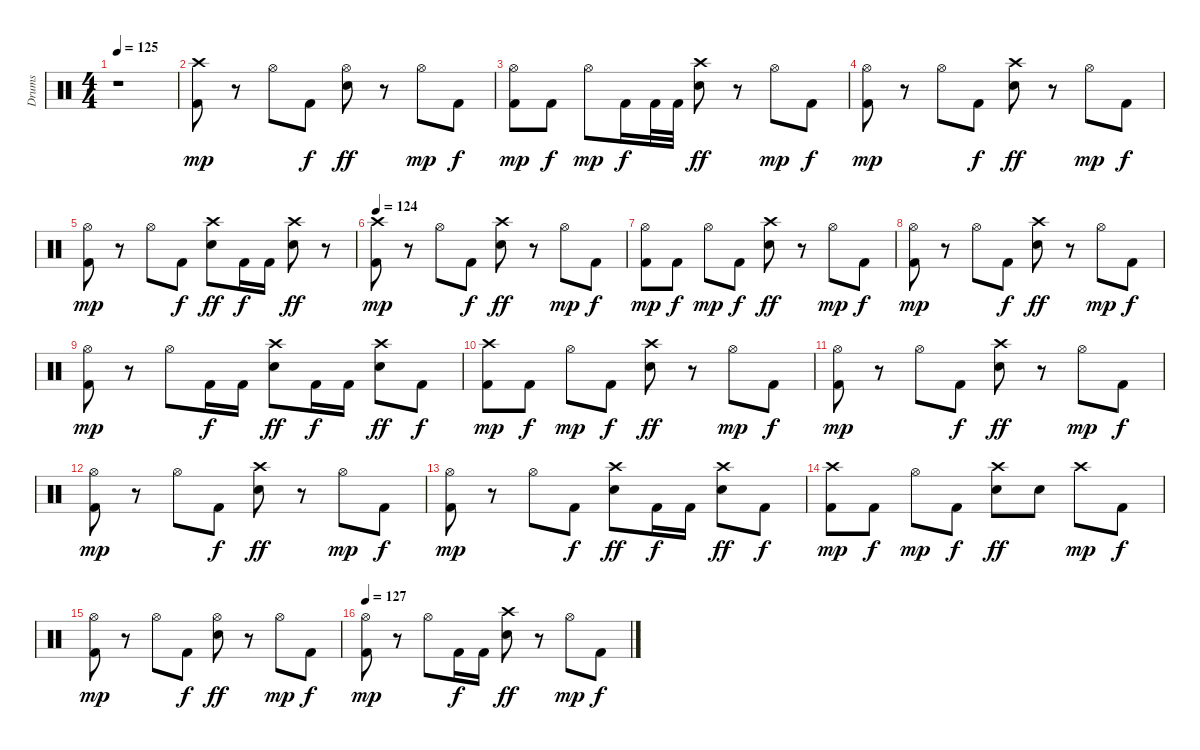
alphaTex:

\track ("Drums" "Drums") {instrument percussion}
\staff {score}
\articulation defaults
\ts (4 4)
\tempo 125
\clef neutral
\ks c
r.1{dy mp} |
("Crash high (hit)" "Kick (hit) 2").8 r.8 "Hi-Hat (open)".8 "Kick (hit) 2".8{dy f} ("Hi-Hat (open)" "Electric Snare (hit)").8{dy ff} r.8 "Hi-Hat (open)".8{dy mp} "Kick (hit) 2".8{dy f} |
("Hi-Hat (open)" "Kick (hit) 2").8{dy mp} "Kick (hit) 2".8{dy f} "Hi-Hat (open)".8{dy mp} "Kick (hit) 2".16{dy f} "Kick (hit) 2".32 "Kick (hit) 2".32 ("Crash high (hit)" "Electric Snare (hit)").8{dy ff} r.8 "Hi-Hat (open)".8{dy mp} "Kick (hit) 2".8{dy f} |
("Hi-Hat (open)" "Kick (hit) 2").8{dy mp} r.8 "Hi-Hat (open)".8 "Kick (hit) 2".8{dy f} ("Crash high (hit)" "Electric Snare (hit)").8{dy ff} r.8 "Hi-Hat (open)".8{dy mp} "Kick (hit) 2".8{dy f} |
("Hi-Hat (open)" "Kick (hit) 2").8{dy mp} r.8 "Hi-Hat (open)".8 "Kick (hit) 2".8{dy f} ("Crash high (hit)" "Electric Snare (hit)").8{dy ff} "Kick (hit) 2".16{dy f} "Kick (hit) 2".16 ("Crash high (hit)" "Electric Snare (hit)").8{dy ff} r.8 |
\tempo 124
("Crash high (hit)" "Kick (hit) 2").8{dy mp} r.8 "Hi-Hat (open)".8 "Kick (hit) 2".8{dy f} ("Crash high (hit)" "Electric Snare (hit)").8{dy ff} r.8 "Hi-Hat (open)".8{dy mp} "Kick (hit) 2".8{dy f} |
("Hi-Hat (open)" "Kick (hit) 2").8{dy mp} "Kick (hit) 2".8{dy f} "Hi-Hat (open)".8{dy mp} "Kick (hit) 2".8{dy f} ("Crash high (hit)" "Electric Snare (hit)").8{dy ff} r.8 "Hi-Hat (open)".8{dy mp} "Kick (hit) 2".8{dy f} |
("Hi-Hat (open)" "Kick (hit) 2").8{dy mp} r.8 "Hi-Hat (open)".8 "Kick (hit) 2".8{dy f} ("Crash high (hit)" "Electric Snare (hit)").8{dy ff} r.8 "Hi-Hat (open)".8{dy mp} "Kick (hit) 2".8{dy f} |
("Hi-Hat (open)" "Kick (hit) 2").8{dy mp} r.8 "Hi-Hat (open)".8 "Kick (hit) 2".16{dy f} "Kick (hit) 2".16 ("Crash high (hit)" "Electric Snare (hit)").8{dy ff} "Kick (hit) 2".16{dy f} "Kick (hit) 2".16 ("Crash high (hit)" "Electric Snare (hit)").8{dy ff} "Kick (hit) 2".8{dy f} |
("Crash high (hit)" "Kick (hit) 2").8{dy mp} "Kick (hit) 2".8{dy f} "Hi-Hat (open)".8{dy mp} "Kick (hit) 2".8{dy f} ("Crash high (hit)" "Electric Snare (hit)").8{dy ff} r.8 "Hi-Hat (open)".8{dy mp} "Kick (hit) 2".8{dy f} |
("Hi-Hat (open)" "Kick (hit) 2").8{dy mp} r.8 "Hi-Hat (open)".8 "Kick (hit) 2".8{dy f} ("Crash high (hit)" "Electric Snare (hit)").8{dy ff} r.8 "Hi-Hat (open)".8{dy mp} "Kick (hit) 2".8{dy f} |
("Hi-Hat (open)" "Kick (hit) 2").8{dy mp} r.8 "Hi-Hat (open)".8 "Kick (hit) 2".8{dy f} ("Crash high (hit)" "Electric Snare (hit)").8{dy ff} r.8 "Hi-Hat (open)".8{dy mp} "Kick (hit) 2".8{dy f} |
("Hi-Hat (open)" "Kick (hit) 2").8{dy mp} r.8 "Hi-Hat (open)".8 "Kick (hit) 2".8{dy f} ("Crash high (hit)" "Electric Snare (hit)").8{dy ff} "Kick (hit) 2".16{dy f} "Kick (hit) 2".16 ("Crash high (hit)" "Electric Snare (hit)").8{dy ff} "Kick (hit) 2".8{dy f} |
("Crash high (hit)" "Kick (hit) 2").8{dy mp} "Kick (hit) 2".8{dy f} "Hi-Hat (open)".8{dy mp} "Kick (hit) 2".8{dy f} ("Crash high (hit)" "Electric Snare (hit)").8{dy ff} "Electric Snare (hit)".8 "Crash high (hit)".8{dy mp} "Kick (hit) 2".8{dy f} |
("Hi-Hat (open)" "Kick (hit) 2").8{dy mp} r.8 "Hi-Hat (open)".8 "Kick (hit) 2".8{dy f} ("Hi-Hat (open)" "Electric Snare (hit)").8{dy ff} r.8 "Hi-Hat (open)".8{dy mp} "Kick (hit) 2".8{dy f} |
\tempo 127
("Hi-Hat (open)" "Kick (hit) 2").8{dy mp} r.8 "Hi-Hat (open)".8 "Kick (hit) 2".16{dy f} "Kick (hit) 2".16 ("Crash high (hit)" "Electric Snare (hit)").8{dy ff} r.8 "Hi-Hat (open)".8{dy mp} "Kick (hit) 2".8{dy f}
